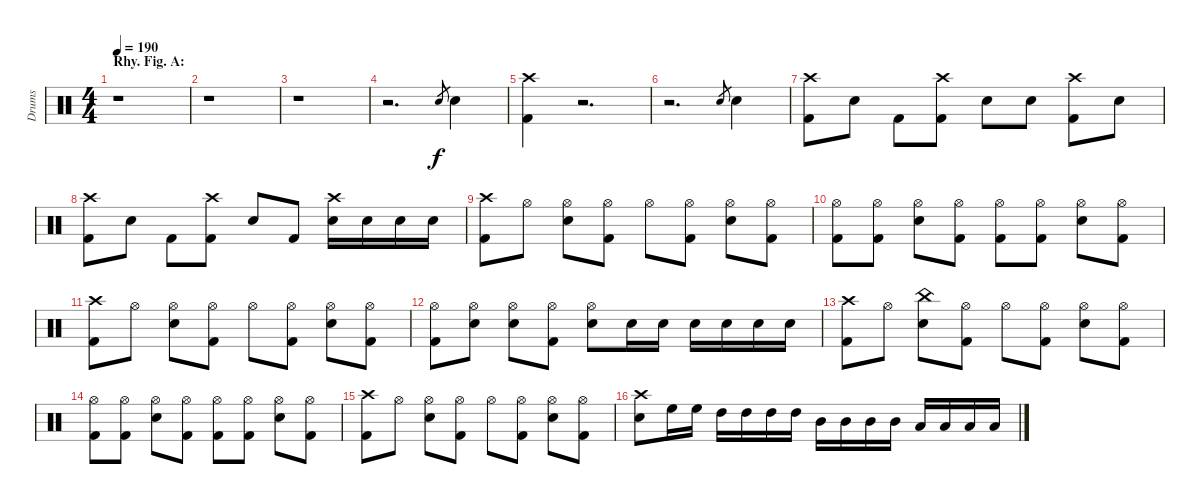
\track ("Drums" "Drums") {instrument percussion}
\staff {score}
\articulation defaults
\ts (4 4)
\section ("" "Rhy. Fig. A:")
\tempo 190
\clef neutral
\ks c
r.1{dy f} |
r.1 |
r.1 |
r.2{d} "Electric Snare (hit)".8{gr} "Electric Snare (hit)".4 |
("Crash high (hit)" "Kick (hit) 2").4 r.2{d} |
r.2{d} "Electric Snare (hit)".8{gr} "Electric Snare (hit)".4 |
("Crash high (hit)" "Kick (hit) 2").8 "Electric Snare (hit)".8 "Kick (hit) 2".8 ("Crash high (hit)" "Kick (hit) 2").8 "Electric Snare (hit)".8 "Electric Snare (hit)".8 ("Crash high (hit)" "Kick (hit) 2").8 "Electric Snare (hit)".8 |
("Crash high (hit)" "Kick (hit) 2").8 "Electric Snare (hit)".8 "Kick (hit) 2".8 ("Crash high (hit)" "Kick (hit) 2").8 "Electric Snare (hit)".8 "Kick (hit) 2".8 ("Crash high (hit)" "Electric Snare (hit)").16 "Electric Snare (hit)".16 "Electric Snare (hit)".16 "Electric Snare (hit)".16 |
("Crash high (hit)" "Kick (hit) 2").8 "Hi-Hat (open)".8 ("Hi-Hat (open)" "Electric Snare (hit)").8 ("Hi-Hat (open)" "Kick (hit) 2").8 "Hi-Hat (open)".8 ("Hi-Hat (open)" "Kick (hit) 2").8 ("Hi-Hat (open)" "Electric Snare (hit)").8 ("Hi-Hat (open)" "Kick (hit) 2").8 |
("Hi-Hat (open)" "Kick (hit) 2").8 ("Hi-Hat (open)" "Kick (hit) 2").8 ("Hi-Hat (open)" "Electric Snare (hit)").8 ("Hi-Hat (open)" "Kick (hit) 2").8 ("Hi-Hat (open)" "Kick (hit) 2").8 ("Hi-Hat (open)" "Kick (hit) 2").8 ("Hi-Hat (open)" "Electric Snare (hit)").8 ("Hi-Hat (open)" "Kick (hit) 2").8 |
("Crash high (hit)" "Kick (hit) 2").8 "Hi-Hat (open)".8 ("Hi-Hat (open)" "Electric Snare (hit)").8 ("Hi-Hat (open)" "Kick (hit) 2").8 "Hi-Hat (open)".8 ("Hi-Hat (open)" "Kick (hit) 2").8 ("Hi-Hat (open)" "Electric Snare (hit)").8 ("Hi-Hat (open)" "Kick (hit) 2").8 |
("Hi-Hat (open)" "Kick (hit) 2").8 ("Hi-Hat (open)" "Electric Snare (hit)").8 ("Hi-Hat (open)" "Electric Snare (hit)").8 ("Hi-Hat (open)" "Kick (hit) 2").8 ("Hi-Hat (open)" "Electric Snare (hit)").8 "Electric Snare (hit)".16 "Electric Snare (hit)".16 "Electric Snare (hit)".16 "Electric Snare (hit)".16 "Electric Snare (hit)".16 "Electric Snare (hit)".16 |
("Crash high (hit)" "Kick (hit) 2").8 "Hi-Hat (open)".8 ("China (hit)" "Electric Snare (hit)").8 ("Hi-Hat (open)" "Kick (hit) 2").8 "Hi-Hat (open)".8 ("Hi-Hat (open)" "Kick (hit) 2").8 ("Hi-Hat (open)" "Electric Snare (hit)").8 ("Hi-Hat (open)" "Kick (hit) 2").8 |
("Hi-Hat (open)" "Kick (hit) 2").8 ("Hi-Hat (open)" "Kick (hit) 2").8 ("Hi-Hat (open)" "Electric Snare (hit)").8 ("Hi-Hat (open)" "Kick (hit) 2").8 ("Hi-Hat (open)" "Kick (hit) 2").8 ("Hi-Hat (open)" "Kick (hit) 2").8 ("Hi-Hat (open)" "Electric Snare (hit)").8 ("Hi-Hat (open)" "Kick (hit) 2").8 |
("Crash high (hit)" "Kick (hit) 2").8 "Hi-Hat (open)".8 ("Hi-Hat (open)" "Electric Snare (hit)").8 ("Hi-Hat (open)" "Kick (hit) 2").8 "Hi-Hat (open)".8 ("Hi-Hat (open)" "Kick (hit) 2").8 ("Hi-Hat (open)" "Electric Snare (hit)").8 ("Hi-Hat (open)" "Kick (hit) 2").8 |
("Crash high (hit)" "Electric Snare (hit)").8 "High Floor Tom (hit)".16 "High Floor Tom (hit)".16 "High Tom (hit)".16 "High Tom (hit)".16 "High Tom (hit)".16 "High Tom (hit)".16 "Mid Tom (hit)".16 "Mid Tom (hit)".16 "Mid Tom (hit)".16 "Mid Tom (hit)".16 "Low Tom (hit)".16 "Low Tom (hit)".16 "Low Tom (hit)".16 "Low Tom (hit)".16
